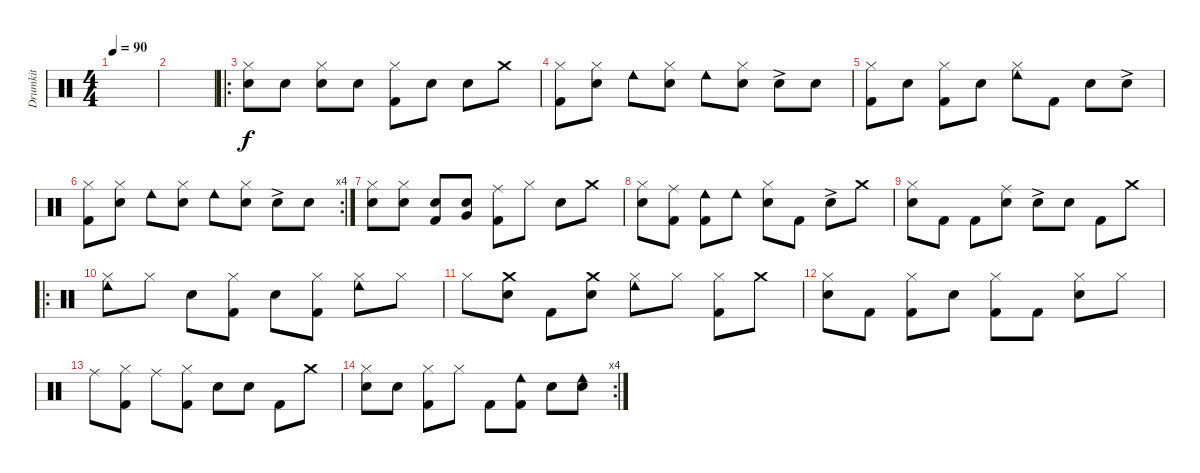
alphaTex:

\track ("Drumkit" "Drumkit") {instrument percussion}
\staff {score}
\articulation defaults
\ts (4 4)
\tempo 90
\clef neutral
\ks c
|
|
\ro
("Snare (hit) 2" "Hi-Hat (closed)").8 "Snare (hit) 2".8 ("Hi-Hat (closed)" "Snare (hit) 2").8 "Snare (hit) 2".8 ("Kick (hit) 2" "Hi-Hat (closed)").8 "Snare (hit) 2".8 "Snare (hit) 2".8 "Crash medium (hit)".8 |
("Kick (hit) 2" "Hi-Hat (closed)").8 ("Hi-Hat (closed)" "Snare (hit) 2").8 "Cowbell low (hit)".8 ("Hi-Hat (closed)" "Snare (hit) 2").8 "Cowbell low (hit)".8 ("Hi-Hat (closed)" "Snare (hit) 2").8 "Snare (hit) 2"{ac}.8 "Snare (hit) 2".8 |
("Kick (hit) 2" "Hi-Hat (closed)").8 "Snare (hit) 2".8 ("Hi-Hat (closed)" "Kick (hit) 2").8 "Snare (hit) 2".8 ("Hi-Hat (closed)" "Cowbell low (hit)").8 "Kick (hit) 2".8 "Snare (hit) 2".8 "Snare (hit) 2"{ac}.8 |
\rc 4
("Kick (hit) 2" "Hi-Hat (closed)").8 ("Hi-Hat (closed)" "Snare (hit) 2").8 "Cowbell low (hit)".8 ("Hi-Hat (closed)" "Snare (hit) 2").8 "Cowbell low (hit)".8 ("Hi-Hat (closed)" "Snare (hit) 2").8 "Snare (hit) 2"{ac}.8 "Snare (hit) 2".8 |
("Hi-Hat (closed)" "Snare (hit) 2").8 ("Hi-Hat (closed)" "Snare (hit) 2").8 ("Kick (hit) 2" "Snare (hit) 2").8 ("Snare (hit) 2" "Very Low Tom (hit)").8 ("Ride (middle)" "Kick (hit) 2").8 "Hi-Hat (closed)".8 "Snare (hit) 2".8 "Crash medium (hit)".8 |
("Snare (hit) 2" "Hi-Hat (closed)").8 ("Ride (middle)" "Kick (hit) 2").8 ("Cowbell low (hit)" "Kick (hit) 2").8 "Cowbell low (hit)".8 ("Snare (hit) 2" "Hi-Hat (closed)").8 "Kick (hit) 2".8 "Snare (hit) 2"{ac}.8 "Crash medium (hit)".8 |
("Hi-Hat (closed)" "Snare (hit) 2").8 "Kick (hit) 2".8 "Kick (hit) 2".8 ("Snare (hit) 2" "Ride (middle)").8 "Snare (hit) 2"{ac}.8 "Snare (hit) 2".8 "Kick (hit) 2".8 "Crash medium (hit)".8 |
\ro
("Hi-Hat (closed)" "Cowbell low (hit)").8 "Hi-Hat (closed)".8 "Snare (hit) 2".8 ("Kick (hit) 2" "Hi-Hat (closed)").8 "Snare (hit) 2".8 ("Kick (hit) 2" "Hi-Hat (closed)").8 ("Hi-Hat (closed)" "Cowbell low (hit)").8 "Hi-Hat (closed)".8 |
"Hi-Hat (closed)".8 ("Snare (hit) 2" "Crash medium (hit)").8 "Kick (hit) 2".8 ("Snare (hit) 2" "Crash medium (hit)").8 ("Hi-Hat (closed)" "Cowbell low (hit)").8 "Hi-Hat (closed)".8 ("Kick (hit) 2" "Hi-Hat (closed)").8 "Crash medium (hit)".8 |
("Snare (hit) 2" "Hi-Hat (closed)").8 "Kick (hit) 2".8 ("Kick (hit) 2" "Hi-Hat (closed)").8 "Snare (hit) 2".8 ("Kick (hit) 2" "Hi-Hat (closed)").8 "Kick (hit) 2".8 ("Snare (hit) 2" "Hi-Hat (closed)").8 "Hi-Hat (closed)".8 |
"Ride (middle)".8 ("Kick (hit) 2" "Hi-Hat (closed)").8 "Ride (middle)".8 ("Kick (hit) 2" "Hi-Hat (closed)").8 "Snare (hit) 2".8 "Snare (hit) 2".8 "Kick (hit) 2".8 "Crash medium (hit)".8 |
\rc 4
("Snare (hit) 2" "Hi-Hat (closed)").8 "Snare (hit) 2".8 ("Kick (hit) 2" "Hi-Hat (closed)").8 "Hi-Hat (closed)".8 "Kick (hit) 2".8 ("Kick (hit) 2" "Cowbell low (hit)").8 "Snare (hit) 2".8 ("Snare (hit) 2" "Cowbell low (hit)").8
